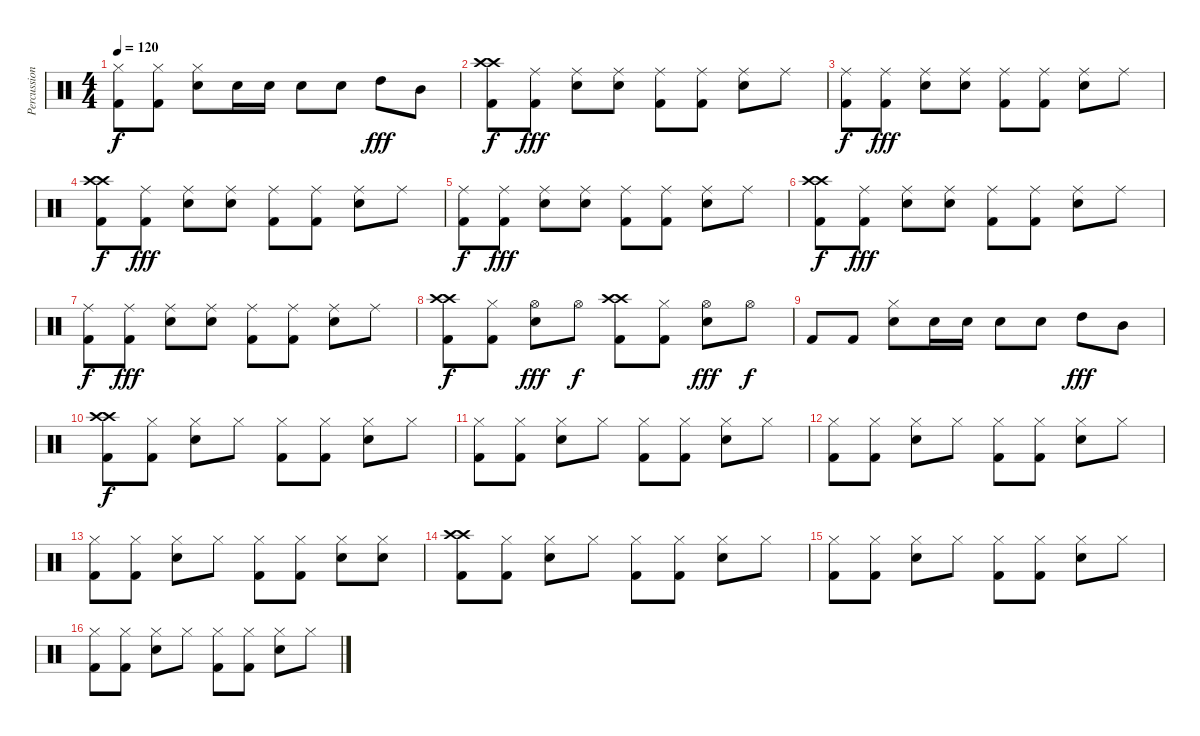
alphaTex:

\track ("Percussion" "Percussion") {instrument percussion}
\staff {score}
\articulation defaults
\ts (4 4)
\tempo 120
\clef neutral
\ks c
("Hi-Hat (closed)" "Kick (hit) 2").8{dy f} ("Hi-Hat (closed)" "Kick (hit) 2").8 ("Hi-Hat (closed)" "Electric Snare (hit)").8 "Electric Snare (hit)".16 "Electric Snare (hit)".16 "Electric Snare (hit)".8 "Electric Snare (hit)".8 "High Tom (hit)".8{dy fff} "Mid Tom (hit)".8 |
("Crash high (hit)" "Kick (hit) 2" "Crash high (hit)").8{dy f} ("Ride (middle)" "Kick (hit) 2").8{dy fff} ("Ride (middle)" "Electric Snare (hit)").8 ("Ride (middle)" "Electric Snare (hit)").8 ("Ride (middle)" "Kick (hit) 2").8 ("Ride (middle)" "Kick (hit) 2").8 ("Ride (middle)" "Electric Snare (hit)").8 "Ride (middle)".8 |
("Ride (middle)" "Kick (hit) 2").8{dy f} ("Ride (middle)" "Kick (hit) 2").8{dy fff} ("Ride (middle)" "Electric Snare (hit)").8 ("Ride (middle)" "Electric Snare (hit)").8 ("Ride (middle)" "Kick (hit) 2").8 ("Ride (middle)" "Kick (hit) 2").8 ("Ride (middle)" "Electric Snare (hit)").8 "Ride (middle)".8 |
("Crash high (hit)" "Kick (hit) 2" "Crash high (hit)").8{dy f} ("Ride (middle)" "Kick (hit) 2").8{dy fff} ("Ride (middle)" "Electric Snare (hit)").8 ("Ride (middle)" "Electric Snare (hit)").8 ("Ride (middle)" "Kick (hit) 2").8 ("Ride (middle)" "Kick (hit) 2").8 ("Ride (middle)" "Electric Snare (hit)").8 "Ride (middle)".8 |
("Ride (middle)" "Kick (hit) 2").8{dy f} ("Ride (middle)" "Kick (hit) 2").8{dy fff} ("Ride (middle)" "Electric Snare (hit)").8 ("Ride (middle)" "Electric Snare (hit)").8 ("Ride (middle)" "Kick (hit) 2").8 ("Ride (middle)" "Kick (hit) 2").8 ("Ride (middle)" "Electric Snare (hit)").8 "Ride (middle)".8 |
("Crash high (hit)" "Kick (hit) 2" "Crash high (hit)").8{dy f} ("Ride (middle)" "Kick (hit) 2").8{dy fff} ("Ride (middle)" "Electric Snare (hit)").8 ("Ride (middle)" "Electric Snare (hit)").8 ("Ride (middle)" "Kick (hit) 2").8 ("Ride (middle)" "Kick (hit) 2").8 ("Ride (middle)" "Electric Snare (hit)").8 "Ride (middle)".8 |
("Ride (middle)" "Kick (hit) 2").8{dy f} ("Ride (middle)" "Kick (hit) 2").8{dy fff} ("Ride (middle)" "Electric Snare (hit)").8 ("Ride (middle)" "Electric Snare (hit)").8 ("Ride (middle)" "Kick (hit) 2").8 ("Ride (middle)" "Kick (hit) 2").8 ("Ride (middle)" "Electric Snare (hit)").8 "Ride (middle)".8 |
("Crash high (hit)" "Kick (hit) 2" "Crash high (hit)").8{dy f} ("Hi-Hat (closed)" "Kick (hit) 2").8 ("Hi-Hat (open)" "Electric Snare (hit)").8{dy fff} "Hi-Hat (open)".8{dy f} ("Crash high (hit)" "Kick (hit) 2" "Crash high (hit)").8 ("Hi-Hat (closed)" "Kick (hit) 2").8 ("Hi-Hat (open)" "Electric Snare (hit)").8{dy fff} "Hi-Hat (open)".8{dy f} |
"Kick (hit) 2".8 "Kick (hit) 2".8 ("Hi-Hat (closed)" "Electric Snare (hit)").8 "Electric Snare (hit)".16 "Electric Snare (hit)".16 "Electric Snare (hit)".8 "Electric Snare (hit)".8 "High Tom (hit)".8{dy fff} "Mid Tom (hit)".8 |
("Crash high (hit)" "Kick (hit) 2" "Crash high (hit)").8{dy f} ("Hi-Hat (closed)" "Kick (hit) 2").8 ("Hi-Hat (closed)" "Electric Snare (hit)").8 "Hi-Hat (closed)".8 ("Hi-Hat (closed)" "Kick (hit) 2").8 ("Hi-Hat (closed)" "Kick (hit) 2").8 ("Hi-Hat (closed)" "Electric Snare (hit)").8 "Hi-Hat (closed)".8 |
("Hi-Hat (closed)" "Kick (hit) 2").8 ("Hi-Hat (closed)" "Kick (hit) 2").8 ("Hi-Hat (closed)" "Electric Snare (hit)").8 "Hi-Hat (closed)".8 ("Hi-Hat (closed)" "Kick (hit) 2").8 ("Hi-Hat (closed)" "Kick (hit) 2").8 ("Hi-Hat (closed)" "Electric Snare (hit)").8 "Hi-Hat (closed)".8 |
("Hi-Hat (closed)" "Kick (hit) 2").8 ("Hi-Hat (closed)" "Kick (hit) 2").8 ("Hi-Hat (closed)" "Electric Snare (hit)").8 "Hi-Hat (closed)".8 ("Hi-Hat (closed)" "Kick (hit) 2").8 ("Hi-Hat (closed)" "Kick (hit) 2").8 ("Hi-Hat (closed)" "Electric Snare (hit)").8 "Hi-Hat (closed)".8 |
("Hi-Hat (closed)" "Kick (hit) 2").8 ("Hi-Hat (closed)" "Kick (hit) 2").8 ("Hi-Hat (closed)" "Electric Snare (hit)").8 "Hi-Hat (closed)".8 ("Hi-Hat (closed)" "Kick (hit) 2").8 ("Hi-Hat (closed)" "Kick (hit) 2").8 ("Hi-Hat (closed)" "Electric Snare (hit)").8 ("Hi-Hat (closed)" "Electric Snare (hit)").8 |
("Crash high (hit)" "Kick (hit) 2" "Crash high (hit)").8 ("Hi-Hat (closed)" "Kick (hit) 2").8 ("Hi-Hat (closed)" "Electric Snare (hit)").8 "Hi-Hat (closed)".8 ("Hi-Hat (closed)" "Kick (hit) 2").8 ("Hi-Hat (closed)" "Kick (hit) 2").8 ("Hi-Hat (closed)" "Electric Snare (hit)").8 "Hi-Hat (closed)".8 |
("Hi-Hat (closed)" "Kick (hit) 2").8 ("Hi-Hat (closed)" "Kick (hit) 2").8 ("Hi-Hat (closed)" "Electric Snare (hit)").8 "Hi-Hat (closed)".8 ("Hi-Hat (closed)" "Kick (hit) 2").8 ("Hi-Hat (closed)" "Kick (hit) 2").8 ("Hi-Hat (closed)" "Electric Snare (hit)").8 "Hi-Hat (closed)".8 |
("Hi-Hat (closed)" "Kick (hit) 2").8 ("Hi-Hat (closed)" "Kick (hit) 2").8 ("Hi-Hat (closed)" "Electric Snare (hit)").8 "Hi-Hat (closed)".8 ("Hi-Hat (closed)" "Kick (hit) 2").8 ("Hi-Hat (closed)" "Kick (hit) 2").8 ("Hi-Hat (closed)" "Electric Snare (hit)").8 "Hi-Hat (closed)".8
